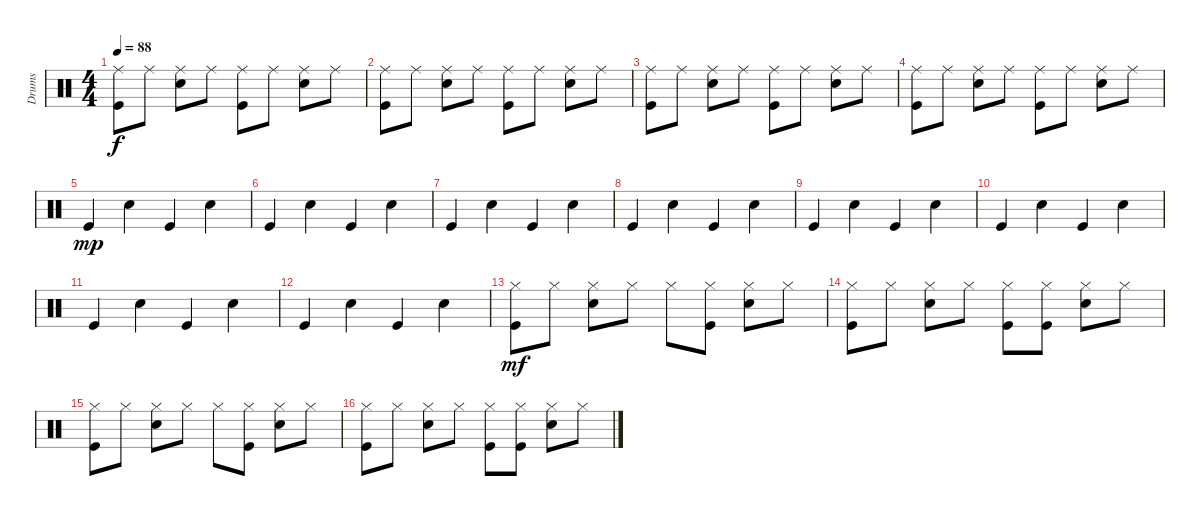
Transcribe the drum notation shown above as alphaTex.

\defaultSystemsLayout 4
\bracketExtendMode groupsimilarinstruments
\multiTrackTrackNamePolicy hidden
\otherSystemsTrackNameOrientation horizontal
\track ("Drumkit" "Drums") {instrument percussion}
\staff {score}
\articulation defaults
\ts (4 4)
\tempo 88
\clef neutral
\ks c
("Kick (hit)" "Ride (middle)").8{dy f} "Ride (middle)".8 ("Snare (hit) 2" "Ride (middle)").8 "Ride (middle)".8 ("Kick (hit)" "Ride (middle)").8 "Ride (middle)".8 ("Snare (hit) 2" "Ride (middle)").8 "Ride (middle)".8 |
("Kick (hit)" "Ride (middle)").8 "Ride (middle)".8 ("Snare (hit) 2" "Ride (middle)").8 "Ride (middle)".8 ("Kick (hit)" "Ride (middle)").8 "Ride (middle)".8 ("Snare (hit) 2" "Ride (middle)").8 "Ride (middle)".8 |
("Kick (hit)" "Ride (middle)").8 "Ride (middle)".8 ("Snare (hit) 2" "Ride (middle)").8 "Ride (middle)".8 ("Kick (hit)" "Ride (middle)").8 "Ride (middle)".8 ("Snare (hit) 2" "Ride (middle)").8 "Ride (middle)".8 |
("Kick (hit)" "Ride (middle)").8 "Ride (middle)".8 ("Snare (hit) 2" "Ride (middle)").8 "Ride (middle)".8 ("Kick (hit)" "Ride (middle)").8 "Ride (middle)".8 ("Snare (hit) 2" "Ride (middle)").8 "Ride (middle)".8 |
"Kick (hit)".4{dy mp} "Snare (hit) 2".4 "Kick (hit)".4 "Snare (hit) 2".4 |
"Kick (hit)".4 "Snare (hit) 2".4 "Kick (hit)".4 "Snare (hit) 2".4 |
"Kick (hit)".4 "Snare (hit) 2".4 "Kick (hit)".4 "Snare (hit) 2".4 |
"Kick (hit)".4 "Snare (hit) 2".4 "Kick (hit)".4 "Snare (hit) 2".4 |
"Kick (hit)".4 "Snare (hit) 2".4 "Kick (hit)".4 "Snare (hit) 2".4 |
"Kick (hit)".4 "Snare (hit) 2".4 "Kick (hit)".4 "Snare (hit) 2".4 |
"Kick (hit)".4 "Snare (hit) 2".4 "Kick (hit)".4 "Snare (hit) 2".4 |
"Kick (hit)".4 "Snare (hit) 2".4 "Kick (hit)".4 "Snare (hit) 2".4 |
("Kick (hit)" "Hi-Hat (closed)").8{dy mf} "Hi-Hat (closed)".8 ("Snare (hit) 2" "Hi-Hat (closed)").8 "Hi-Hat (closed)".8 "Hi-Hat (closed)".8 ("Hi-Hat (closed)" "Kick (hit)").8 ("Hi-Hat (closed)" "Snare (hit) 2").8 "Hi-Hat (closed)".8 |
("Kick (hit)" "Hi-Hat (closed)").8 "Hi-Hat (closed)".8 ("Snare (hit) 2" "Hi-Hat (closed)").8 "Hi-Hat (closed)".8 ("Hi-Hat (closed)" "Kick (hit)").8 ("Hi-Hat (closed)" "Kick (hit)").8 ("Hi-Hat (closed)" "Snare (hit) 2").8 "Hi-Hat (closed)".8 |
("Kick (hit)" "Hi-Hat (closed)").8 "Hi-Hat (closed)".8 ("Snare (hit) 2" "Hi-Hat (closed)").8 "Hi-Hat (closed)".8 "Hi-Hat (closed)".8 ("Hi-Hat (closed)" "Kick (hit)").8 ("Hi-Hat (closed)" "Snare (hit) 2").8 "Hi-Hat (closed)".8 |
("Kick (hit)" "Hi-Hat (closed)").8 "Hi-Hat (closed)".8 ("Snare (hit) 2" "Hi-Hat (closed)").8 "Hi-Hat (closed)".8 ("Hi-Hat (closed)" "Kick (hit)").8 ("Hi-Hat (closed)" "Kick (hit)").8 ("Hi-Hat (closed)" "Snare (hit) 2").8 "Hi-Hat (closed)".8
